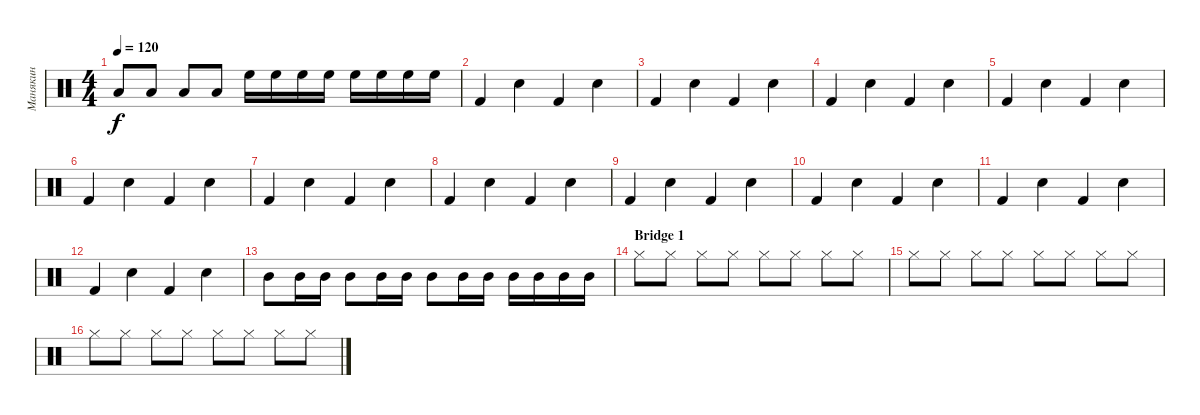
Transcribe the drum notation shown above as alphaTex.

\track ("Манякин" "Манякин") {instrument percussion}
\staff {score}
\articulation defaults
\ts (4 4)
\tempo 120
\clef neutral
\ks c "Low Tom (hit)".8{dy f} "Low Tom (hit)".8 "Low Tom (hit)".8 "Low Tom (hit)".8 "High Floor Tom (hit)".16 "High Floor Tom (hit)".16 "High Floor Tom (hit)".16 "High Floor Tom (hit)".16 "High Floor Tom (hit)".16 "High Floor Tom (hit)".16 "High Floor Tom (hit)".16 "High Floor Tom (hit)".16
|
"Kick (hit) 2".4 "Snare (hit) 2".4 "Kick (hit) 2".4 "Snare (hit) 2".4 |
"Kick (hit) 2".4 "Snare (hit) 2".4 "Kick (hit) 2".4 "Snare (hit) 2".4 |
"Kick (hit) 2".4 "Snare (hit) 2".4 "Kick (hit) 2".4 "Snare (hit) 2".4 |
"Kick (hit) 2".4 "Snare (hit) 2".4 "Kick (hit) 2".4 "Snare (hit) 2".4 |
"Kick (hit) 2".4 "Snare (hit) 2".4 "Kick (hit) 2".4 "Snare (hit) 2".4 |
"Kick (hit) 2".4 "Snare (hit) 2".4 "Kick (hit) 2".4 "Snare (hit) 2".4 |
"Kick (hit) 2".4 "Snare (hit) 2".4 "Kick (hit) 2".4 "Snare (hit) 2".4 |
"Kick (hit) 2".4 "Snare (hit) 2".4 "Kick (hit) 2".4 "Snare (hit) 2".4 |
"Kick (hit) 2".4 "Snare (hit) 2".4 "Kick (hit) 2".4 "Snare (hit) 2".4 |
"Kick (hit) 2".4 "Snare (hit) 2".4 "Kick (hit) 2".4 "Snare (hit) 2".4 |
"Kick (hit) 2".4 "Snare (hit) 2".4 "Kick (hit) 2".4 "Snare (hit) 2".4 |
"Mid Tom (hit)".8 "Mid Tom (hit)".16 "Mid Tom (hit)".16 "Mid Tom (hit)".8 "Mid Tom (hit)".16 "Mid Tom (hit)".16 "Mid Tom (hit)".8 "Mid Tom (hit)".16 "Mid Tom (hit)".16 "Mid Tom (hit)".16 "Mid Tom (hit)".16 "Mid Tom (hit)".16 "Mid Tom (hit)".16 |
\section ("" "Bridge 1")
"Hi-Hat (closed)".8 "Hi-Hat (closed)".8 "Hi-Hat (closed)".8 "Hi-Hat (closed)".8 "Hi-Hat (closed)".8 "Hi-Hat (closed)".8 "Hi-Hat (closed)".8 "Hi-Hat (closed)".8 |
"Hi-Hat (closed)".8 "Hi-Hat (closed)".8 "Hi-Hat (closed)".8 "Hi-Hat (closed)".8 "Hi-Hat (closed)".8 "Hi-Hat (closed)".8 "Hi-Hat (closed)".8 "Hi-Hat (closed)".8 |
"Hi-Hat (closed)".8 "Hi-Hat (closed)".8 "Hi-Hat (closed)".8 "Hi-Hat (closed)".8 "Hi-Hat (closed)".8 "Hi-Hat (closed)".8 "Hi-Hat (closed)".8 "Hi-Hat (closed)".8
